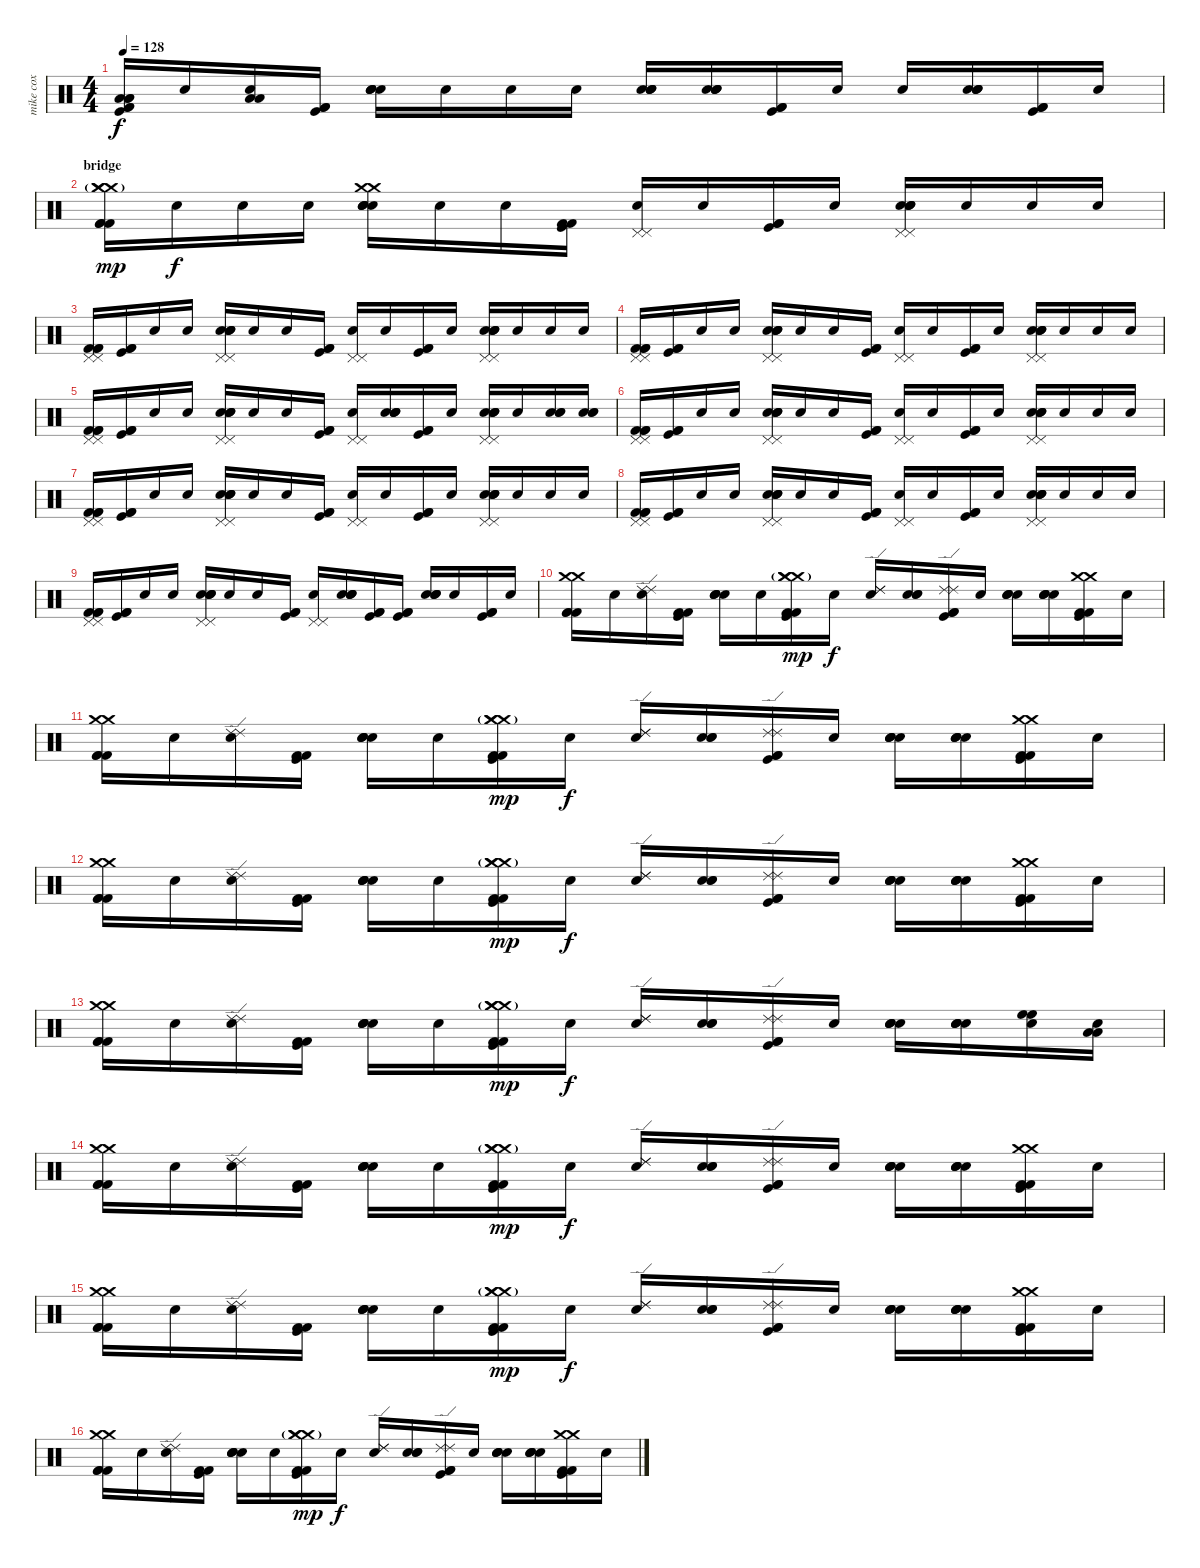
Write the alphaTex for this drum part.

\track ("mike cox" "mike cox") {instrument percussion}
\staff {score}
\articulation defaults
\ts (4 4)
\tempo 128
\clef neutral
\ks c
("Low Floor Tom (hit)" "Low Floor Tom (hit)" "Low Floor Tom (hit)" "Kick (hit)" "Kick (hit) 2" "Kick (hit) 2").16{dy f} "Snare (hit)".16 ("Low Floor Tom (hit)" "Low Floor Tom (hit)" "Snare (hit)").16 ("Kick (hit)" "Kick (hit) 2" "Kick (hit) 2").16 ("Electric Snare (hit)" "Electric Snare (hit)" "Snare (hit) 2" "Snare (hit)").16 "Snare (hit)".16 "Snare (hit)".16 "Snare (hit)".16 ("Electric Snare (hit)" "Electric Snare (hit)" "Snare (hit) 2" "Snare (hit)").16 ("Electric Snare (hit)" "Electric Snare (hit)" "Snare (hit) 2" "Snare (hit)").16 ("Kick (hit)" "Kick (hit) 2" "Kick (hit) 2").16 "Snare (hit)".16 "Snare (hit)".16 ("Electric Snare (hit)" "Electric Snare (hit)" "Snare (hit) 2" "Snare (hit)").16 ("Kick (hit)" "Kick (hit) 2" "Kick (hit) 2").16 "Snare (hit)".16 |
\section ("" "bridge")
("Crash medium (hit)" "Crash medium (hit)" "Crash medium (hit)"{g} "Kick (hit) 2" "Kick (hit) 2" "Kick (hit) 2").16{dy mp} "Snare (hit)".16{dy f} "Snare (hit)".16 "Snare (hit)".16 ("Crash medium (hit)" "Crash medium (hit)" "Electric Snare (hit)" "Electric Snare (hit)" "Snare (hit) 2" "Snare (hit)").16 "Snare (hit)".16 "Snare (hit)".16 ("Kick (hit)" "Kick (hit) 2" "Kick (hit) 2").16 ("Pedal Hi-Hat (hit)" "Pedal Hi-Hat (hit)" "Snare (hit)").16 "Snare (hit)".16 ("Kick (hit)" "Kick (hit) 2" "Kick (hit) 2").16 "Snare (hit)".16 ("Pedal Hi-Hat (hit)" "Pedal Hi-Hat (hit)" "Electric Snare (hit)" "Electric Snare (hit)" "Snare (hit) 2" "Snare (hit)").16 "Snare (hit)".16 "Snare (hit)".16 "Snare (hit)".16 |
("Pedal Hi-Hat (hit)" "Pedal Hi-Hat (hit)" "Kick (hit) 2" "Kick (hit) 2" "Kick (hit) 2").16 ("Kick (hit)" "Kick (hit) 2" "Kick (hit) 2").16 "Snare (hit)".16 "Snare (hit)".16 ("Pedal Hi-Hat (hit)" "Pedal Hi-Hat (hit)" "Electric Snare (hit)" "Electric Snare (hit)" "Snare (hit) 2" "Snare (hit)").16 "Snare (hit)".16 "Snare (hit)".16 ("Kick (hit)" "Kick (hit) 2" "Kick (hit) 2").16 ("Pedal Hi-Hat (hit)" "Pedal Hi-Hat (hit)" "Snare (hit)").16 "Snare (hit)".16 ("Kick (hit)" "Kick (hit) 2" "Kick (hit) 2").16 "Snare (hit)".16 ("Pedal Hi-Hat (hit)" "Pedal Hi-Hat (hit)" "Electric Snare (hit)" "Electric Snare (hit)" "Snare (hit) 2" "Snare (hit)").16 "Snare (hit)".16 "Snare (hit)".16 "Snare (hit)".16 |
("Pedal Hi-Hat (hit)" "Pedal Hi-Hat (hit)" "Kick (hit) 2" "Kick (hit) 2" "Kick (hit) 2").16 ("Kick (hit)" "Kick (hit) 2" "Kick (hit) 2").16 "Snare (hit)".16 "Snare (hit)".16 ("Pedal Hi-Hat (hit)" "Pedal Hi-Hat (hit)" "Electric Snare (hit)" "Electric Snare (hit)" "Snare (hit) 2" "Snare (hit)").16 "Snare (hit)".16 "Snare (hit)".16 ("Kick (hit)" "Kick (hit) 2" "Kick (hit) 2").16 ("Pedal Hi-Hat (hit)" "Pedal Hi-Hat (hit)" "Snare (hit)").16 "Snare (hit)".16 ("Kick (hit)" "Kick (hit) 2" "Kick (hit) 2").16 "Snare (hit)".16 ("Pedal Hi-Hat (hit)" "Pedal Hi-Hat (hit)" "Electric Snare (hit)" "Electric Snare (hit)" "Snare (hit) 2" "Snare (hit)").16 "Snare (hit)".16 "Snare (hit)".16 "Snare (hit)".16 |
("Pedal Hi-Hat (hit)" "Pedal Hi-Hat (hit)" "Kick (hit) 2" "Kick (hit) 2" "Kick (hit) 2").16 ("Kick (hit)" "Kick (hit) 2" "Kick (hit) 2").16 "Snare (hit)".16 "Snare (hit)".16 ("Pedal Hi-Hat (hit)" "Pedal Hi-Hat (hit)" "Electric Snare (hit)" "Electric Snare (hit)" "Snare (hit) 2" "Snare (hit)").16 "Snare (hit)".16 "Snare (hit)".16 ("Kick (hit)" "Kick (hit) 2" "Kick (hit) 2").16 ("Pedal Hi-Hat (hit)" "Pedal Hi-Hat (hit)" "Snare (hit)").16 ("Electric Snare (hit)" "Electric Snare (hit)" "Snare (hit) 2" "Snare (hit)").16 ("Kick (hit)" "Kick (hit) 2" "Kick (hit) 2").16 "Snare (hit)".16 ("Pedal Hi-Hat (hit)" "Pedal Hi-Hat (hit)" "Electric Snare (hit)" "Electric Snare (hit)" "Snare (hit) 2" "Snare (hit)").16 "Snare (hit)".16 ("Electric Snare (hit)" "Electric Snare (hit)" "Snare (hit) 2").16 ("Electric Snare (hit)" "Electric Snare (hit)" "Snare (hit) 2").16 |
("Pedal Hi-Hat (hit)" "Pedal Hi-Hat (hit)" "Kick (hit) 2" "Kick (hit) 2" "Kick (hit) 2").16 ("Kick (hit)" "Kick (hit) 2" "Kick (hit) 2").16 "Snare (hit)".16 "Snare (hit)".16 ("Pedal Hi-Hat (hit)" "Pedal Hi-Hat (hit)" "Electric Snare (hit)" "Electric Snare (hit)" "Snare (hit) 2" "Snare (hit)").16 "Snare (hit)".16 "Snare (hit)".16 ("Kick (hit)" "Kick (hit) 2" "Kick (hit) 2").16 ("Pedal Hi-Hat (hit)" "Pedal Hi-Hat (hit)" "Snare (hit)").16 "Snare (hit)".16 ("Kick (hit)" "Kick (hit) 2" "Kick (hit) 2").16 "Snare (hit)".16 ("Pedal Hi-Hat (hit)" "Pedal Hi-Hat (hit)" "Electric Snare (hit)" "Electric Snare (hit)" "Snare (hit) 2" "Snare (hit)").16 "Snare (hit)".16 "Snare (hit)".16 "Snare (hit)".16 |
("Pedal Hi-Hat (hit)" "Pedal Hi-Hat (hit)" "Kick (hit) 2" "Kick (hit) 2" "Kick (hit) 2").16 ("Kick (hit)" "Kick (hit) 2" "Kick (hit) 2").16 "Snare (hit)".16 "Snare (hit)".16 ("Pedal Hi-Hat (hit)" "Pedal Hi-Hat (hit)" "Electric Snare (hit)" "Electric Snare (hit)" "Snare (hit) 2" "Snare (hit)").16 "Snare (hit)".16 "Snare (hit)".16 ("Kick (hit)" "Kick (hit) 2" "Kick (hit) 2").16 ("Pedal Hi-Hat (hit)" "Pedal Hi-Hat (hit)" "Snare (hit)").16 "Snare (hit)".16 ("Kick (hit)" "Kick (hit) 2" "Kick (hit) 2").16 "Snare (hit)".16 ("Pedal Hi-Hat (hit)" "Pedal Hi-Hat (hit)" "Electric Snare (hit)" "Electric Snare (hit)" "Snare (hit) 2" "Snare (hit)").16 "Snare (hit)".16 "Snare (hit)".16 "Snare (hit)".16 |
("Pedal Hi-Hat (hit)" "Pedal Hi-Hat (hit)" "Kick (hit) 2" "Kick (hit) 2" "Kick (hit) 2").16 ("Kick (hit)" "Kick (hit) 2" "Kick (hit) 2").16 "Snare (hit)".16 "Snare (hit)".16 ("Pedal Hi-Hat (hit)" "Pedal Hi-Hat (hit)" "Electric Snare (hit)" "Electric Snare (hit)" "Snare (hit) 2" "Snare (hit)").16 "Snare (hit)".16 "Snare (hit)".16 ("Kick (hit)" "Kick (hit) 2" "Kick (hit) 2").16 ("Pedal Hi-Hat (hit)" "Pedal Hi-Hat (hit)" "Snare (hit)").16 "Snare (hit)".16 ("Kick (hit)" "Kick (hit) 2" "Kick (hit) 2").16 "Snare (hit)".16 ("Pedal Hi-Hat (hit)" "Pedal Hi-Hat (hit)" "Electric Snare (hit)" "Electric Snare (hit)" "Snare (hit) 2" "Snare (hit)").16 "Snare (hit)".16 "Snare (hit)".16 "Snare (hit)".16 |
("Pedal Hi-Hat (hit)" "Pedal Hi-Hat (hit)" "Kick (hit) 2" "Kick (hit) 2" "Kick (hit) 2").16 ("Kick (hit)" "Kick (hit) 2" "Kick (hit) 2").16 "Snare (hit)".16 "Snare (hit)".16 ("Pedal Hi-Hat (hit)" "Pedal Hi-Hat (hit)" "Electric Snare (hit)" "Electric Snare (hit)" "Snare (hit) 2" "Snare (hit)").16 "Snare (hit)".16 "Snare (hit)".16 ("Kick (hit)" "Kick (hit) 2" "Kick (hit) 2").16 ("Pedal Hi-Hat (hit)" "Pedal Hi-Hat (hit)" "Snare (hit)").16 ("Electric Snare (hit)" "Electric Snare (hit)" "Snare (hit) 2" "Snare (hit)").16 ("Kick (hit)" "Kick (hit) 2" "Kick (hit) 2").16 ("Kick (hit)" "Kick (hit) 2" "Kick (hit) 2").16 ("Electric Snare (hit)" "Electric Snare (hit)" "Snare (hit) 2" "Snare (hit)").16 "Snare (hit)".16 ("Kick (hit)" "Kick (hit) 2" "Kick (hit) 2").16 "Snare (hit)".16 |
("Crash medium (hit)" "Crash medium (hit)" "Kick (hit) 2" "Kick (hit) 2" "Kick (hit) 2").16 "Snare (hit)".16 ("Ride (edge) 2" "Ride (edge) 2" "Snare (hit)").16 ("Kick (hit)" "Kick (hit) 2" "Kick (hit) 2").16 ("Electric Snare (hit)" "Electric Snare (hit)" "Snare (hit) 2" "Snare (hit)").16 "Snare (hit)".16 ("Crash medium (hit)" "Crash medium (hit)" "Crash medium (hit)"{g} "Kick (hit)" "Kick (hit) 2" "Kick (hit) 2").16{dy mp} "Snare (hit)".16{dy f} ("Ride (edge) 2" "Ride (edge) 2" "Snare (hit)").16 ("Electric Snare (hit)" "Electric Snare (hit)" "Snare (hit) 2").16 ("Ride (edge) 2" "Ride (edge) 2" "Kick (hit)" "Kick (hit) 2" "Kick (hit) 2").16 "Snare (hit)".16 ("Electric Snare (hit)" "Electric Snare (hit)" "Snare (hit) 2" "Snare (hit)").16 ("Electric Snare (hit)" "Electric Snare (hit)" "Snare (hit) 2" "Snare (hit)").16 ("Crash medium (hit)" "Crash medium (hit)" "Kick (hit)" "Kick (hit) 2" "Kick (hit) 2").16 "Snare (hit)".16 |
("Crash medium (hit)" "Crash medium (hit)" "Kick (hit) 2" "Kick (hit) 2" "Kick (hit) 2").16 "Snare (hit)".16 ("Ride (edge) 2" "Ride (edge) 2" "Snare (hit)").16 ("Kick (hit)" "Kick (hit) 2" "Kick (hit) 2").16 ("Electric Snare (hit)" "Electric Snare (hit)" "Snare (hit) 2" "Snare (hit)").16 "Snare (hit)".16 ("Crash medium (hit)" "Crash medium (hit)" "Crash medium (hit)"{g} "Kick (hit)" "Kick (hit) 2" "Kick (hit) 2").16{dy mp} "Snare (hit)".16{dy f} ("Ride (edge) 2" "Ride (edge) 2" "Snare (hit)").16 ("Electric Snare (hit)" "Electric Snare (hit)" "Snare (hit) 2").16 ("Ride (edge) 2" "Ride (edge) 2" "Kick (hit)" "Kick (hit) 2" "Kick (hit) 2").16 "Snare (hit)".16 ("Electric Snare (hit)" "Electric Snare (hit)" "Snare (hit) 2" "Snare (hit)").16 ("Electric Snare (hit)" "Electric Snare (hit)" "Snare (hit) 2" "Snare (hit)").16 ("Crash medium (hit)" "Crash medium (hit)" "Kick (hit)" "Kick (hit) 2" "Kick (hit) 2").16 "Snare (hit)".16 |
("Crash medium (hit)" "Crash medium (hit)" "Kick (hit) 2" "Kick (hit) 2" "Kick (hit) 2").16 "Snare (hit)".16 ("Ride (edge) 2" "Ride (edge) 2" "Snare (hit)").16 ("Kick (hit)" "Kick (hit) 2" "Kick (hit) 2").16 ("Electric Snare (hit)" "Electric Snare (hit)" "Snare (hit) 2" "Snare (hit)").16 "Snare (hit)".16 ("Crash medium (hit)" "Crash medium (hit)" "Crash medium (hit)"{g} "Kick (hit)" "Kick (hit) 2" "Kick (hit) 2").16{dy mp} "Snare (hit)".16{dy f} ("Ride (edge) 2" "Ride (edge) 2" "Snare (hit)").16 ("Electric Snare (hit)" "Electric Snare (hit)" "Snare (hit) 2").16 ("Ride (edge) 2" "Ride (edge) 2" "Kick (hit)" "Kick (hit) 2" "Kick (hit) 2").16 "Snare (hit)".16 ("Electric Snare (hit)" "Electric Snare (hit)" "Snare (hit) 2" "Snare (hit)").16 ("Electric Snare (hit)" "Electric Snare (hit)" "Snare (hit) 2" "Snare (hit)").16 ("Crash medium (hit)" "Crash medium (hit)" "Kick (hit)" "Kick (hit) 2" "Kick (hit) 2").16 "Snare (hit)".16 |
("Crash medium (hit)" "Crash medium (hit)" "Kick (hit) 2" "Kick (hit) 2" "Kick (hit) 2").16 "Snare (hit)".16 ("Ride (edge) 2" "Ride (edge) 2" "Snare (hit)").16 ("Kick (hit)" "Kick (hit) 2" "Kick (hit) 2").16 ("Electric Snare (hit)" "Electric Snare (hit)" "Snare (hit) 2" "Snare (hit)").16 "Snare (hit)".16 ("Crash medium (hit)" "Crash medium (hit)" "Crash medium (hit)"{g} "Kick (hit)" "Kick (hit) 2" "Kick (hit) 2").16{dy mp} "Snare (hit)".16{dy f} ("Ride (edge) 2" "Ride (edge) 2" "Snare (hit)").16 ("Electric Snare (hit)" "Electric Snare (hit)" "Snare (hit) 2").16 ("Ride (edge) 2" "Ride (edge) 2" "Kick (hit)" "Kick (hit) 2" "Kick (hit) 2").16 "Snare (hit)".16 ("Electric Snare (hit)" "Electric Snare (hit)" "Snare (hit) 2" "Snare (hit)").16 ("Electric Snare (hit)" "Electric Snare (hit)" "Snare (hit) 2" "Snare (hit)").16 ("High Floor Tom (hit)" "High Floor Tom (hit)" "Snare (hit)").16 ("Low Floor Tom (hit)" "Low Floor Tom (hit)" "Snare (hit)").16 |
("Crash medium (hit)" "Crash medium (hit)" "Kick (hit) 2" "Kick (hit) 2" "Kick (hit) 2").16 "Snare (hit)".16 ("Ride (edge) 2" "Ride (edge) 2" "Snare (hit)").16 ("Kick (hit)" "Kick (hit) 2" "Kick (hit) 2").16 ("Electric Snare (hit)" "Electric Snare (hit)" "Snare (hit) 2" "Snare (hit)").16 "Snare (hit)".16 ("Crash medium (hit)" "Crash medium (hit)" "Crash medium (hit)"{g} "Kick (hit)" "Kick (hit) 2" "Kick (hit) 2").16{dy mp} "Snare (hit)".16{dy f} ("Ride (edge) 2" "Ride (edge) 2" "Snare (hit)").16 ("Electric Snare (hit)" "Electric Snare (hit)" "Snare (hit) 2").16 ("Ride (edge) 2" "Ride (edge) 2" "Kick (hit)" "Kick (hit) 2" "Kick (hit) 2").16 "Snare (hit)".16 ("Electric Snare (hit)" "Electric Snare (hit)" "Snare (hit) 2" "Snare (hit)").16 ("Electric Snare (hit)" "Electric Snare (hit)" "Snare (hit) 2" "Snare (hit)").16 ("Crash medium (hit)" "Crash medium (hit)" "Kick (hit)" "Kick (hit) 2" "Kick (hit) 2").16 "Snare (hit)".16 |
("Crash medium (hit)" "Crash medium (hit)" "Kick (hit) 2" "Kick (hit) 2" "Kick (hit) 2").16 "Snare (hit)".16 ("Ride (edge) 2" "Ride (edge) 2" "Snare (hit)").16 ("Kick (hit)" "Kick (hit) 2" "Kick (hit) 2").16 ("Electric Snare (hit)" "Electric Snare (hit)" "Snare (hit) 2" "Snare (hit)").16 "Snare (hit)".16 ("Crash medium (hit)" "Crash medium (hit)" "Crash medium (hit)"{g} "Kick (hit)" "Kick (hit) 2" "Kick (hit) 2").16{dy mp} "Snare (hit)".16{dy f} ("Ride (edge) 2" "Ride (edge) 2" "Snare (hit)").16 ("Electric Snare (hit)" "Electric Snare (hit)" "Snare (hit) 2").16 ("Ride (edge) 2" "Ride (edge) 2" "Kick (hit)" "Kick (hit) 2" "Kick (hit) 2").16 "Snare (hit)".16 ("Electric Snare (hit)" "Electric Snare (hit)" "Snare (hit) 2" "Snare (hit)").16 ("Electric Snare (hit)" "Electric Snare (hit)" "Snare (hit) 2" "Snare (hit)").16 ("Crash medium (hit)" "Crash medium (hit)" "Kick (hit)" "Kick (hit) 2" "Kick (hit) 2").16 "Snare (hit)".16 |
("Crash medium (hit)" "Crash medium (hit)" "Kick (hit) 2" "Kick (hit) 2" "Kick (hit) 2").16 "Snare (hit)".16 ("Ride (edge) 2" "Ride (edge) 2" "Snare (hit)").16 ("Kick (hit)" "Kick (hit) 2" "Kick (hit) 2").16 ("Electric Snare (hit)" "Electric Snare (hit)" "Snare (hit) 2" "Snare (hit)").16 "Snare (hit)".16 ("Crash medium (hit)" "Crash medium (hit)" "Crash medium (hit)"{g} "Kick (hit)" "Kick (hit) 2" "Kick (hit) 2").16{dy mp} "Snare (hit)".16{dy f} ("Ride (edge) 2" "Ride (edge) 2" "Snare (hit)").16 ("Electric Snare (hit)" "Electric Snare (hit)" "Snare (hit) 2").16 ("Ride (edge) 2" "Ride (edge) 2" "Kick (hit)" "Kick (hit) 2" "Kick (hit) 2").16 "Snare (hit)".16 ("Electric Snare (hit)" "Electric Snare (hit)" "Snare (hit) 2" "Snare (hit)").16 ("Electric Snare (hit)" "Electric Snare (hit)" "Snare (hit) 2" "Snare (hit)").16 ("Crash medium (hit)" "Crash medium (hit)" "Kick (hit)" "Kick (hit) 2" "Kick (hit) 2").16 "Snare (hit)".16
